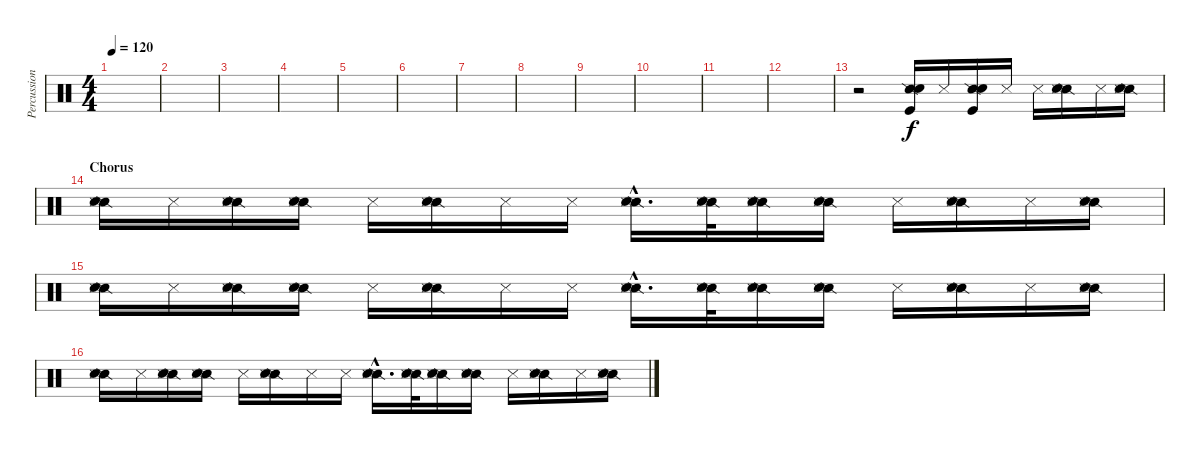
\track ("Percussion" "Percussion") {instrument percussion}
\staff {score}
\articulation defaults
\ts (4 4)
\tempo 120
\clef neutral
\ks c
|
|
|
|
|
|
|
|
|
|
|
|
r.2 ("Snare (side stick) 2" "Snare (hit) 2" "Kick (hit)"{x}).16 "Metronome (hit)"{x}.16 ("Snare (side stick) 2" "Snare (hit) 2" "Kick (hit)"{x}).16 "Metronome (hit)"{x}.16 "Metronome (hit)"{x}.16 ("Snare (side stick) 2" "Snare (hit) 2" "Metronome (hit)"{x}).16 "Metronome (hit)"{x}.16 ("Snare (side stick) 2" "Snare (hit) 2" "Metronome (hit)"{x}).16 |
\section ("" "Chorus")
("Snare (side stick) 2" "Snare (hit) 2" "Metronome (hit)"{x}).16 "Metronome (hit)"{x}.16 ("Snare (side stick) 2" "Snare (hit) 2" "Metronome (hit)"{x}).16 ("Snare (side stick) 2" "Snare (hit) 2" "Metronome (hit)"{x}).16 "Metronome (hit)"{x}.16 ("Snare (side stick) 2" "Snare (hit) 2" "Metronome (hit)"{x}).16 "Metronome (hit)"{x}.16 "Metronome (hit)"{x}.16 ("Snare (side stick) 2"{hac} "Snare (hit) 2"{hac} "Metronome (hit)"{hac x}).16{d} ("Snare (side stick) 2" "Snare (hit) 2" "Metronome (hit)"{x}).32 ("Snare (side stick) 2" "Snare (hit) 2" "Metronome (hit)"{x}).16 ("Snare (side stick) 2" "Snare (hit) 2" "Metronome (hit)"{x}).16 "Metronome (hit)"{x}.16 ("Snare (side stick) 2" "Snare (hit) 2" "Metronome (hit)"{x}).16 "Metronome (hit)"{x}.16 ("Snare (side stick) 2" "Snare (hit) 2" "Metronome (hit)"{x}).16 |
("Snare (side stick) 2" "Snare (hit) 2" "Metronome (hit)"{x}).16 "Metronome (hit)"{x}.16 ("Snare (side stick) 2" "Snare (hit) 2" "Metronome (hit)"{x}).16 ("Snare (side stick) 2" "Snare (hit) 2" "Metronome (hit)"{x}).16 "Metronome (hit)"{x}.16 ("Snare (side stick) 2" "Snare (hit) 2" "Metronome (hit)"{x}).16 "Metronome (hit)"{x}.16 "Metronome (hit)"{x}.16 ("Snare (side stick) 2"{hac} "Snare (hit) 2"{hac} "Metronome (hit)"{hac x}).16{d} ("Snare (side stick) 2" "Snare (hit) 2" "Metronome (hit)"{x}).32 ("Snare (side stick) 2" "Snare (hit) 2" "Metronome (hit)"{x}).16 ("Snare (side stick) 2" "Snare (hit) 2" "Metronome (hit)"{x}).16 "Metronome (hit)"{x}.16 ("Snare (side stick) 2" "Snare (hit) 2" "Metronome (hit)"{x}).16 "Metronome (hit)"{x}.16 ("Snare (side stick) 2" "Snare (hit) 2" "Metronome (hit)"{x}).16 |
("Snare (side stick) 2" "Snare (hit) 2" "Metronome (hit)"{x}).16 "Metronome (hit)"{x}.16 ("Snare (side stick) 2" "Snare (hit) 2" "Metronome (hit)"{x}).16 ("Snare (side stick) 2" "Snare (hit) 2" "Metronome (hit)"{x}).16 "Metronome (hit)"{x}.16 ("Snare (side stick) 2" "Snare (hit) 2" "Metronome (hit)"{x}).16 "Metronome (hit)"{x}.16 "Metronome (hit)"{x}.16 ("Snare (side stick) 2"{hac} "Snare (hit) 2"{hac} "Metronome (hit)"{hac x}).16{d} ("Snare (side stick) 2" "Snare (hit) 2" "Metronome (hit)"{x}).32 ("Snare (side stick) 2" "Snare (hit) 2" "Metronome (hit)"{x}).16 ("Snare (side stick) 2" "Snare (hit) 2" "Metronome (hit)"{x}).16 "Metronome (hit)"{x}.16 ("Snare (side stick) 2" "Snare (hit) 2" "Metronome (hit)"{x}).16 "Metronome (hit)"{x}.16 ("Snare (side stick) 2" "Snare (hit) 2" "Metronome (hit)"{x}).16
